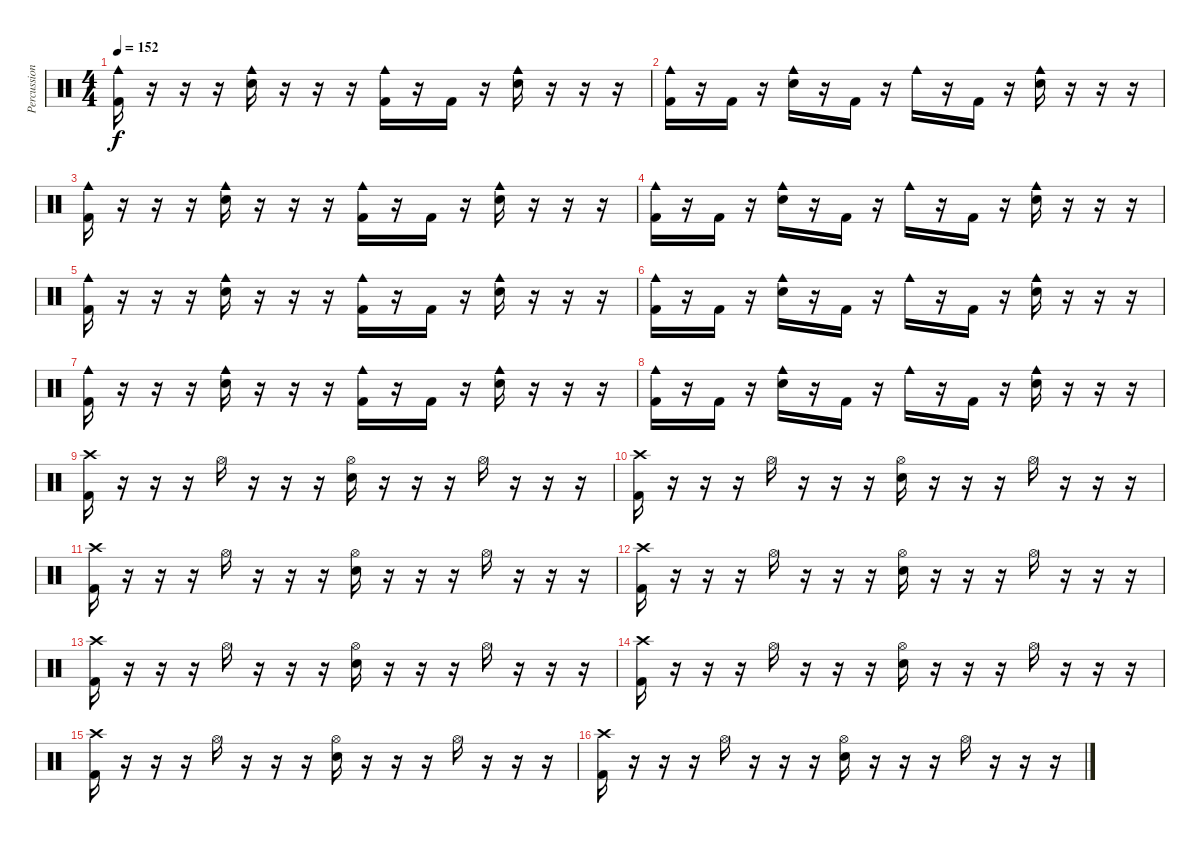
\track ("Percussions" "Percussion") {instrument percussion}
\staff {score}
\articulation defaults
\ts (4 4)
\tempo 152
\clef neutral
\ks c
("Kick (hit) 2" "Cowbell medium (hit)").16{dy f} r.16 r.16 r.16 ("Electric Snare (hit)" "Cowbell medium (hit)").16 r.16 r.16 r.16 ("Kick (hit) 2" "Cowbell medium (hit)").16 r.16 "Kick (hit) 2".16 r.16 ("Electric Snare (hit)" "Cowbell medium (hit)").16 r.16 r.16 r.16 |
("Kick (hit) 2" "Cowbell medium (hit)").16 r.16 "Kick (hit) 2".16 r.16 ("Electric Snare (hit)" "Cowbell medium (hit)").16 r.16 "Kick (hit) 2".16 r.16 "Cowbell medium (hit)".16 r.16 "Kick (hit) 2".16 r.16 ("Electric Snare (hit)" "Cowbell medium (hit)").16 r.16 r.16 r.16 |
("Kick (hit) 2" "Cowbell medium (hit)").16 r.16 r.16 r.16 ("Electric Snare (hit)" "Cowbell medium (hit)").16 r.16 r.16 r.16 ("Kick (hit) 2" "Cowbell medium (hit)").16 r.16 "Kick (hit) 2".16 r.16 ("Electric Snare (hit)" "Cowbell medium (hit)").16 r.16 r.16 r.16 |
("Kick (hit) 2" "Cowbell medium (hit)").16 r.16 "Kick (hit) 2".16 r.16 ("Electric Snare (hit)" "Cowbell medium (hit)").16 r.16 "Kick (hit) 2".16 r.16 "Cowbell medium (hit)".16 r.16 "Kick (hit) 2".16 r.16 ("Electric Snare (hit)" "Cowbell medium (hit)").16 r.16 r.16 r.16 |
("Kick (hit) 2" "Cowbell medium (hit)").16 r.16 r.16 r.16 ("Electric Snare (hit)" "Cowbell medium (hit)").16 r.16 r.16 r.16 ("Kick (hit) 2" "Cowbell medium (hit)").16 r.16 "Kick (hit) 2".16 r.16 ("Electric Snare (hit)" "Cowbell medium (hit)").16 r.16 r.16 r.16 |
("Kick (hit) 2" "Cowbell medium (hit)").16 r.16 "Kick (hit) 2".16 r.16 ("Electric Snare (hit)" "Cowbell medium (hit)").16 r.16 "Kick (hit) 2".16 r.16 "Cowbell medium (hit)".16 r.16 "Kick (hit) 2".16 r.16 ("Electric Snare (hit)" "Cowbell medium (hit)").16 r.16 r.16 r.16 |
("Kick (hit) 2" "Cowbell medium (hit)").16 r.16 r.16 r.16 ("Electric Snare (hit)" "Cowbell medium (hit)").16 r.16 r.16 r.16 ("Kick (hit) 2" "Cowbell medium (hit)").16 r.16 "Kick (hit) 2".16 r.16 ("Electric Snare (hit)" "Cowbell medium (hit)").16 r.16 r.16 r.16 |
("Kick (hit) 2" "Cowbell medium (hit)").16 r.16 "Kick (hit) 2".16 r.16 ("Electric Snare (hit)" "Cowbell medium (hit)").16 r.16 "Kick (hit) 2".16 r.16 "Cowbell medium (hit)".16 r.16 "Kick (hit) 2".16 r.16 ("Electric Snare (hit)" "Cowbell medium (hit)").16 r.16 r.16 r.16 |
("Kick (hit) 2" "Crash high (hit)").16 r.16 r.16 r.16 "Hi-Hat (open)".16 r.16 r.16 r.16 ("Electric Snare (hit)" "Hi-Hat (open)").16 r.16 r.16 r.16 "Hi-Hat (open)".16 r.16 r.16 r.16 |
("Kick (hit) 2" "Crash high (hit)").16 r.16 r.16 r.16 "Hi-Hat (open)".16 r.16 r.16 r.16 ("Electric Snare (hit)" "Hi-Hat (open)").16 r.16 r.16 r.16 "Hi-Hat (open)".16 r.16 r.16 r.16 |
("Kick (hit) 2" "Crash high (hit)").16 r.16 r.16 r.16 "Hi-Hat (open)".16 r.16 r.16 r.16 ("Electric Snare (hit)" "Hi-Hat (open)").16 r.16 r.16 r.16 "Hi-Hat (open)".16 r.16 r.16 r.16 |
("Kick (hit) 2" "Crash high (hit)").16 r.16 r.16 r.16 "Hi-Hat (open)".16 r.16 r.16 r.16 ("Electric Snare (hit)" "Hi-Hat (open)").16 r.16 r.16 r.16 "Hi-Hat (open)".16 r.16 r.16 r.16 |
("Kick (hit) 2" "Crash high (hit)").16 r.16 r.16 r.16 "Hi-Hat (open)".16 r.16 r.16 r.16 ("Electric Snare (hit)" "Hi-Hat (open)").16 r.16 r.16 r.16 "Hi-Hat (open)".16 r.16 r.16 r.16 |
("Kick (hit) 2" "Crash high (hit)").16 r.16 r.16 r.16 "Hi-Hat (open)".16 r.16 r.16 r.16 ("Electric Snare (hit)" "Hi-Hat (open)").16 r.16 r.16 r.16 "Hi-Hat (open)".16 r.16 r.16 r.16 |
("Kick (hit) 2" "Crash high (hit)").16 r.16 r.16 r.16 "Hi-Hat (open)".16 r.16 r.16 r.16 ("Electric Snare (hit)" "Hi-Hat (open)").16 r.16 r.16 r.16 "Hi-Hat (open)".16 r.16 r.16 r.16 |
("Kick (hit) 2" "Crash high (hit)").16 r.16 r.16 r.16 "Hi-Hat (open)".16 r.16 r.16 r.16 ("Electric Snare (hit)" "Hi-Hat (open)").16 r.16 r.16 r.16 "Hi-Hat (open)".16 r.16 r.16 r.16
